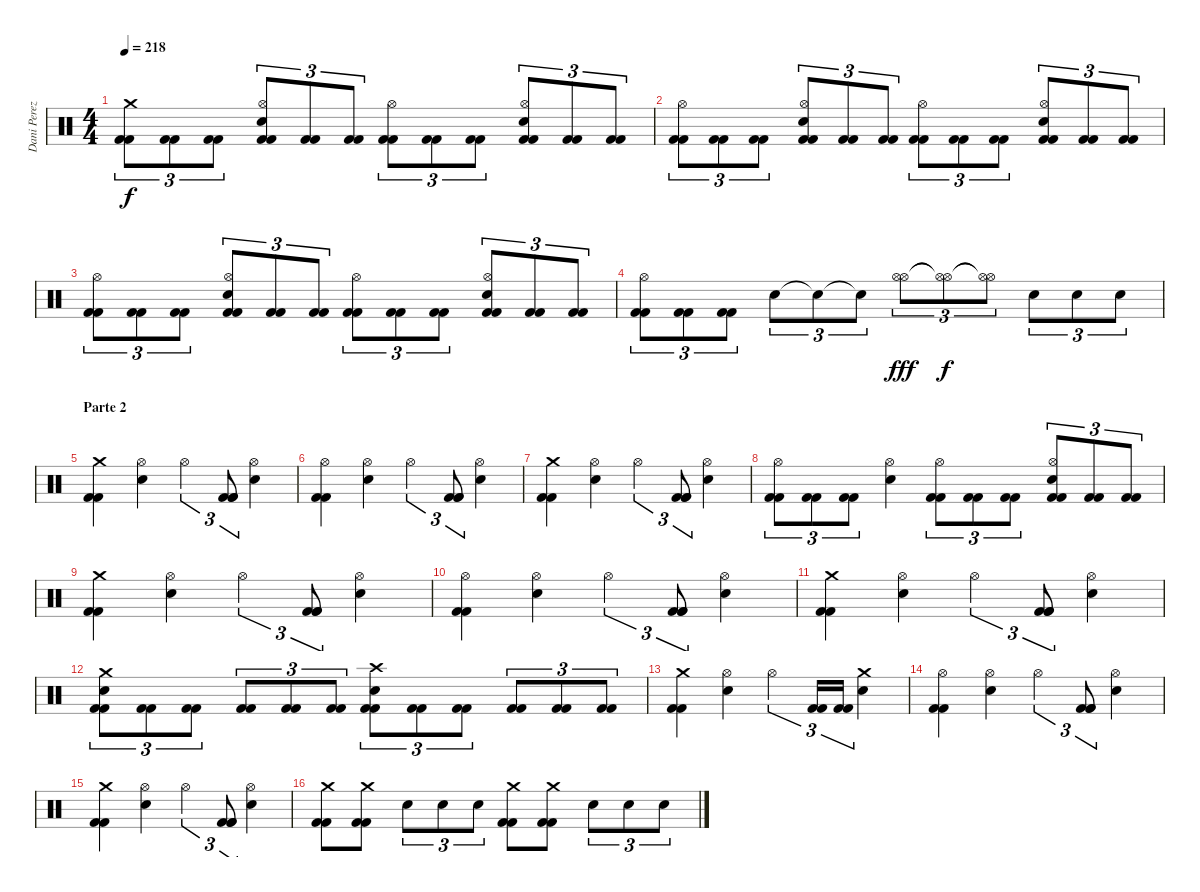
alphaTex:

\track ("Dani Perez" "Dani Perez") {instrument percussion}
\staff {score}
\articulation defaults
\ts (4 4)
\tempo 218
\clef neutral
\ks c
("Crash medium (hit)" "Kick (hit) 2" "Kick (hit) 2").8{tu (3 2) dy f} ("Kick (hit) 2" "Kick (hit) 2").8{tu (3 2)} ("Kick (hit) 2" "Kick (hit) 2").8{tu (3 2)} ("Hi-Hat (open)" "Snare (hit) 2" "Kick (hit) 2" "Kick (hit) 2").8{tu (3 2)} ("Kick (hit) 2" "Kick (hit) 2").8{tu (3 2)} ("Kick (hit) 2" "Kick (hit) 2").8{tu (3 2)} ("Hi-Hat (open)" "Kick (hit) 2" "Kick (hit) 2").8{tu (3 2)} ("Kick (hit) 2" "Kick (hit) 2").8{tu (3 2)} ("Kick (hit) 2" "Kick (hit) 2").8{tu (3 2)} ("Hi-Hat (open)" "Snare (hit) 2" "Kick (hit) 2" "Kick (hit) 2").8{tu (3 2)} ("Kick (hit) 2" "Kick (hit) 2").8{tu (3 2)} ("Kick (hit) 2" "Kick (hit) 2").8{tu (3 2)} |
("Hi-Hat (open)" "Kick (hit) 2" "Kick (hit) 2").8{tu (3 2)} ("Kick (hit) 2" "Kick (hit) 2").8{tu (3 2)} ("Kick (hit) 2" "Kick (hit) 2").8{tu (3 2)} ("Hi-Hat (open)" "Snare (hit) 2" "Kick (hit) 2" "Kick (hit) 2").8{tu (3 2)} ("Kick (hit) 2" "Kick (hit) 2").8{tu (3 2)} ("Kick (hit) 2" "Kick (hit) 2").8{tu (3 2)} ("Hi-Hat (open)" "Kick (hit) 2" "Kick (hit) 2").8{tu (3 2)} ("Kick (hit) 2" "Kick (hit) 2").8{tu (3 2)} ("Kick (hit) 2" "Kick (hit) 2").8{tu (3 2)} ("Hi-Hat (open)" "Snare (hit) 2" "Kick (hit) 2" "Kick (hit) 2").8{tu (3 2)} ("Kick (hit) 2" "Kick (hit) 2").8{tu (3 2)} ("Kick (hit) 2" "Kick (hit) 2").8{tu (3 2)} |
("Hi-Hat (open)" "Kick (hit) 2" "Kick (hit) 2").8{tu (3 2)} ("Kick (hit) 2" "Kick (hit) 2").8{tu (3 2)} ("Kick (hit) 2" "Kick (hit) 2").8{tu (3 2)} ("Hi-Hat (open)" "Snare (hit) 2" "Kick (hit) 2" "Kick (hit) 2").8{tu (3 2)} ("Kick (hit) 2" "Kick (hit) 2").8{tu (3 2)} ("Kick (hit) 2" "Kick (hit) 2").8{tu (3 2)} ("Hi-Hat (open)" "Kick (hit) 2" "Kick (hit) 2").8{tu (3 2)} ("Kick (hit) 2" "Kick (hit) 2").8{tu (3 2)} ("Kick (hit) 2" "Kick (hit) 2").8{tu (3 2)} ("Hi-Hat (open)" "Snare (hit) 2" "Kick (hit) 2" "Kick (hit) 2").8{tu (3 2)} ("Kick (hit) 2" "Kick (hit) 2").8{tu (3 2)} ("Kick (hit) 2" "Kick (hit) 2").8{tu (3 2)} |
("Hi-Hat (open)" "Kick (hit) 2" "Kick (hit) 2").8{tu (3 2)} ("Kick (hit) 2" "Kick (hit) 2").8{tu (3 2)} ("Kick (hit) 2" "Kick (hit) 2").8{tu (3 2)} "Snare (hit) 2".8{tu (3 2)} "Snare (hit) 2"{t}.8{tu (3 2)} "Snare (hit) 2"{t}.8{tu (3 2)} ("Hi-Hat (open)" "Hi-Hat (open)").8{tu (3 2) dy fff} ("Hi-Hat (open)"{t} "Hi-Hat (open)"{t}).8{tu (3 2) dy f} ("Hi-Hat (open)"{t} "Hi-Hat (open)"{t}).8{tu (3 2)} "Snare (hit) 2".8{tu (3 2)} "Snare (hit) 2".8{tu (3 2)} "Snare (hit) 2".8{tu (3 2)} |
\section ("" "Parte 2")
("Crash medium (hit)" "Kick (hit) 2" "Kick (hit) 2").4 ("Hi-Hat (open)" "Snare (hit) 2").4 "Hi-Hat (open)".4{tu (3 2)} ("Kick (hit) 2" "Kick (hit) 2" "Kick (hit) 2").8{tu (3 2)} ("Hi-Hat (open)" "Snare (hit) 2").4 |
("Hi-Hat (open)" "Kick (hit) 2" "Kick (hit) 2").4 ("Hi-Hat (open)" "Snare (hit) 2").4 "Hi-Hat (open)".4{tu (3 2)} ("Kick (hit) 2" "Kick (hit) 2" "Kick (hit) 2").8{tu (3 2)} ("Hi-Hat (open)" "Snare (hit) 2").4 |
("Crash medium (hit)" "Kick (hit) 2" "Kick (hit) 2").4 ("Hi-Hat (open)" "Snare (hit) 2").4 "Hi-Hat (open)".4{tu (3 2)} ("Kick (hit) 2" "Kick (hit) 2" "Kick (hit) 2").8{tu (3 2)} ("Hi-Hat (open)" "Snare (hit) 2").4 |
("Hi-Hat (open)" "Kick (hit) 2" "Kick (hit) 2").8{tu (3 2)} ("Kick (hit) 2" "Kick (hit) 2").8{tu (3 2)} ("Kick (hit) 2" "Kick (hit) 2").8{tu (3 2)} ("Hi-Hat (open)" "Snare (hit) 2").4 ("Hi-Hat (open)" "Kick (hit) 2" "Kick (hit) 2").8{tu (3 2)} ("Kick (hit) 2" "Kick (hit) 2").8{tu (3 2)} ("Kick (hit) 2" "Kick (hit) 2").8{tu (3 2)} ("Hi-Hat (open)" "Snare (hit) 2" "Kick (hit) 2" "Kick (hit) 2").8{tu (3 2)} ("Kick (hit) 2" "Kick (hit) 2").8{tu (3 2)} ("Kick (hit) 2" "Kick (hit) 2").8{tu (3 2)} |
("Crash medium (hit)" "Kick (hit) 2" "Kick (hit) 2").4 ("Hi-Hat (open)" "Snare (hit) 2").4 "Hi-Hat (open)".4{tu (3 2)} ("Kick (hit) 2" "Kick (hit) 2" "Kick (hit) 2").8{tu (3 2)} ("Hi-Hat (open)" "Snare (hit) 2").4 |
("Hi-Hat (open)" "Kick (hit) 2" "Kick (hit) 2").4 ("Hi-Hat (open)" "Snare (hit) 2").4 "Hi-Hat (open)".4{tu (3 2)} ("Kick (hit) 2" "Kick (hit) 2" "Kick (hit) 2").8{tu (3 2)} ("Hi-Hat (open)" "Snare (hit) 2").4 |
("Crash medium (hit)" "Kick (hit) 2" "Kick (hit) 2").4 ("Hi-Hat (open)" "Snare (hit) 2").4 "Hi-Hat (open)".4{tu (3 2)} ("Kick (hit) 2" "Kick (hit) 2" "Kick (hit) 2").8{tu (3 2)} ("Hi-Hat (open)" "Snare (hit) 2").4 |
("Snare (hit) 2" "Crash medium (hit)" "Kick (hit) 2" "Kick (hit) 2").8{tu (3 2)} ("Kick (hit) 2" "Kick (hit) 2").8{tu (3 2)} ("Kick (hit) 2" "Kick (hit) 2").8{tu (3 2)} ("Kick (hit) 2" "Kick (hit) 2").8{tu (3 2)} ("Kick (hit) 2" "Kick (hit) 2").8{tu (3 2)} ("Kick (hit) 2" "Kick (hit) 2").8{tu (3 2)} ("Snare (hit) 2" "Crash high (hit)" "Kick (hit) 2" "Kick (hit) 2").8{tu (3 2)} ("Kick (hit) 2" "Kick (hit) 2").8{tu (3 2)} ("Kick (hit) 2" "Kick (hit) 2").8{tu (3 2)} ("Kick (hit) 2" "Kick (hit) 2").8{tu (3 2)} ("Kick (hit) 2" "Kick (hit) 2").8{tu (3 2)} ("Kick (hit) 2" "Kick (hit) 2").8{tu (3 2)} |
("Crash medium (hit)" "Kick (hit) 2" "Kick (hit) 2").4 ("Hi-Hat (open)" "Snare (hit) 2").4 "Hi-Hat (open)".4{tu (3 2)} ("Kick (hit) 2" "Kick (hit) 2").16{tu (3 2)} ("Kick (hit) 2" "Kick (hit) 2").16{tu (3 2)} ("Crash medium (hit)" "Snare (hit) 2").4 |
("Hi-Hat (open)" "Kick (hit) 2" "Kick (hit) 2").4 ("Hi-Hat (open)" "Snare (hit) 2").4 "Hi-Hat (open)".4{tu (3 2)} ("Kick (hit) 2" "Kick (hit) 2" "Kick (hit) 2").8{tu (3 2)} ("Hi-Hat (open)" "Snare (hit) 2").4 |
("Crash medium (hit)" "Kick (hit) 2" "Kick (hit) 2").4 ("Hi-Hat (open)" "Snare (hit) 2").4 "Hi-Hat (open)".4{tu (3 2)} ("Kick (hit) 2" "Kick (hit) 2" "Kick (hit) 2").8{tu (3 2)} ("Hi-Hat (open)" "Snare (hit) 2").4 |
("Kick (hit) 2" "Kick (hit) 2" "Crash medium (hit)").8 ("Kick (hit) 2" "Kick (hit) 2" "Crash medium (hit)").8 "Snare (hit) 2".8{tu (3 2)} "Snare (hit) 2".8{tu (3 2)} "Snare (hit) 2".8{tu (3 2)} ("Kick (hit) 2" "Kick (hit) 2" "Crash medium (hit)").8 ("Kick (hit) 2" "Kick (hit) 2" "Crash medium (hit)").8 "Snare (hit) 2".8{tu (3 2)} "Snare (hit) 2".8{tu (3 2)} "Snare (hit) 2".8{tu (3 2)}
